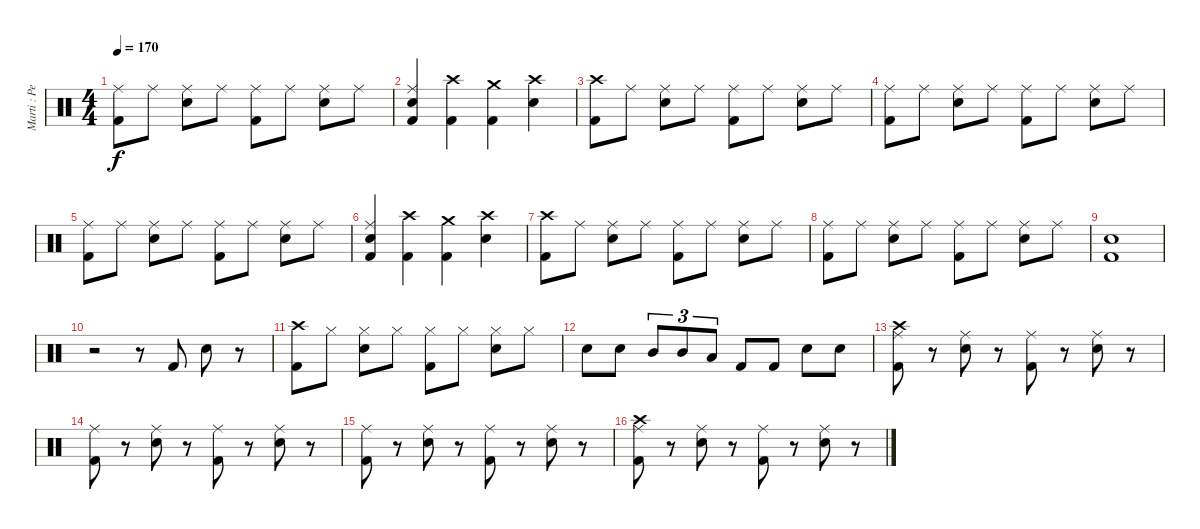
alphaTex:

\track ("Marti : Percussion" "Marti : Pe") {instrument percussion}
\staff {score}
\articulation defaults
\ts (4 4)
\tempo 170
\clef neutral
\ks c
("Kick (hit) 2" "Ride (middle)").8{dy f} "Ride (middle)".8 ("Electric Snare (hit)" "Ride (middle)").8 "Ride (middle)".8 ("Kick (hit) 2" "Ride (middle)").8 "Ride (middle)".8 ("Electric Snare (hit)" "Ride (middle)").8 "Ride (middle)".8 |
("Kick (hit) 2" "Electric Snare (hit)" "Ride (middle)").4 ("Kick (hit) 2" "Crash high (hit)").4 ("Kick (hit) 2" "Crash medium (hit)").4 ("Electric Snare (hit)" "Crash high (hit)").4 |
("Kick (hit) 2" "Crash high (hit)").8 "Ride (middle)".8 ("Electric Snare (hit)" "Ride (middle)").8 "Ride (middle)".8 ("Kick (hit) 2" "Ride (middle)").8 "Ride (middle)".8 ("Electric Snare (hit)" "Ride (middle)").8 "Ride (middle)".8 |
("Kick (hit) 2" "Ride (middle)").8 "Ride (middle)".8 ("Electric Snare (hit)" "Ride (middle)").8 "Ride (middle)".8 ("Kick (hit) 2" "Ride (middle)").8 "Ride (middle)".8 ("Electric Snare (hit)" "Ride (middle)").8 "Ride (middle)".8 |
("Kick (hit) 2" "Ride (middle)").8 "Ride (middle)".8 ("Electric Snare (hit)" "Ride (middle)").8 "Ride (middle)".8 ("Kick (hit) 2" "Ride (middle)").8 "Ride (middle)".8 ("Electric Snare (hit)" "Ride (middle)").8 "Ride (middle)".8 |
("Kick (hit) 2" "Electric Snare (hit)" "Ride (middle)").4 ("Kick (hit) 2" "Crash high (hit)").4 ("Kick (hit) 2" "Crash medium (hit)").4 ("Electric Snare (hit)" "Crash high (hit)").4 |
("Kick (hit) 2" "Crash high (hit)").8 "Ride (middle)".8 ("Electric Snare (hit)" "Ride (middle)").8 "Ride (middle)".8 ("Kick (hit) 2" "Ride (middle)").8 "Ride (middle)".8 ("Electric Snare (hit)" "Ride (middle)").8 "Ride (middle)".8 |
("Kick (hit) 2" "Ride (middle)").8 "Ride (middle)".8 ("Electric Snare (hit)" "Ride (middle)").8 "Ride (middle)".8 ("Kick (hit) 2" "Ride (middle)").8 "Ride (middle)".8 ("Electric Snare (hit)" "Ride (middle)").8 "Ride (middle)".8 |
("Electric Snare (hit)" "Kick (hit) 2").1 |
r.2 r.8 "Kick (hit) 2".8 "Electric Snare (hit)".8 r.8 |
("Kick (hit) 2" "Crash high (hit)").8 "Hi-Hat (closed)".8 ("Electric Snare (hit)" "Hi-Hat (closed)").8 "Hi-Hat (closed)".8 ("Kick (hit) 2" "Hi-Hat (closed)").8 "Hi-Hat (closed)".8 ("Electric Snare (hit)" "Hi-Hat (closed)").8 "Hi-Hat (closed)".8 |
"Electric Snare (hit)".8 "Electric Snare (hit)".8 "Mid Tom (hit)".8{tu (3 2)} "Mid Tom (hit)".8{tu (3 2)} "Low Tom (hit)".8{tu (3 2)} "Kick (hit) 2".8 "Kick (hit) 2".8 "Electric Snare (hit)".8 "Electric Snare (hit)".8 |
("Crash high (hit)" "Kick (hit) 2" "Ride (middle)").8 r.8 ("Electric Snare (hit)" "Ride (middle)").8 r.8 ("Kick (hit) 2" "Ride (middle)").8 r.8 ("Electric Snare (hit)" "Ride (middle)").8 r.8 |
("Kick (hit) 2" "Ride (middle)").8 r.8 ("Electric Snare (hit)" "Ride (middle)").8 r.8 ("Kick (hit) 2" "Ride (middle)").8 r.8 ("Electric Snare (hit)" "Ride (middle)").8 r.8 |
("Kick (hit) 2" "Ride (middle)").8 r.8 ("Electric Snare (hit)" "Ride (middle)").8 r.8 ("Kick (hit) 2" "Ride (middle)").8 r.8 ("Electric Snare (hit)" "Ride (middle)").8 r.8 |
("Crash high (hit)" "Kick (hit) 2" "Ride (middle)").8 r.8 ("Electric Snare (hit)" "Ride (middle)").8 r.8 ("Kick (hit) 2" "Ride (middle)").8 r.8 ("Electric Snare (hit)" "Ride (middle)").8 r.8
